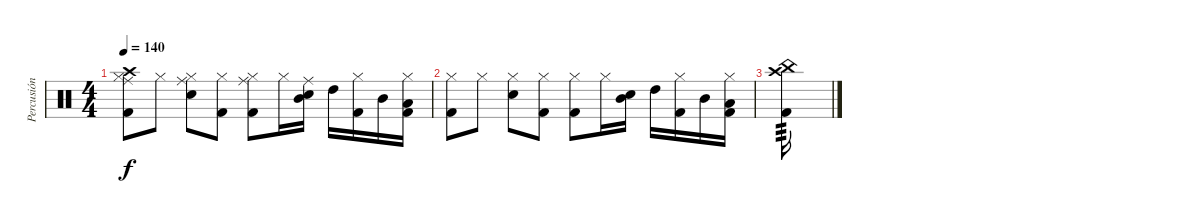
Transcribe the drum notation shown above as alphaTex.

\track ("Percusión" "Percusión") {instrument percussion}
\staff {score}
\articulation defaults
\ts (4 4)
\tempo 140
\clef neutral
\ks c
("Hi-Hat (closed)" "Kick (hit) 2" "Crash high (hit)" "Ride (middle)").8{dy f} "Hi-Hat (closed)".8 ("Hi-Hat (closed)" "Snare (hit) 2" "Ride (middle)").8 ("Hi-Hat (closed)" "Kick (hit) 2").8 ("Hi-Hat (closed)" "Kick (hit) 2" "Ride (middle)").8 "Hi-Hat (closed)".16 ("Mid Tom (hit)" "Snare (hit) 2" "Ride (middle)").16 "High Tom (hit)".16 ("Hi-Hat (closed)" "Kick (hit) 2").16 "Mid Tom (hit)".16 ("Hi-Hat (closed)" "Low Tom (hit)" "Kick (hit) 2").16 |
("Hi-Hat (closed)" "Kick (hit) 2").8 "Hi-Hat (closed)".8 ("Hi-Hat (closed)" "Snare (hit) 2").8 ("Hi-Hat (closed)" "Kick (hit) 2").8 ("Hi-Hat (closed)" "Kick (hit) 2").8 "Hi-Hat (closed)".16 ("Mid Tom (hit)" "Snare (hit) 2").16 "High Tom (hit)".16 ("Hi-Hat (closed)" "Kick (hit) 2").16 "Mid Tom (hit)".16 ("Hi-Hat (closed)" "Low Tom (hit)" "Kick (hit) 2").16 |
("Crash high (hit)" "China (hit)" "Kick (hit) 2").16{tp 3}
